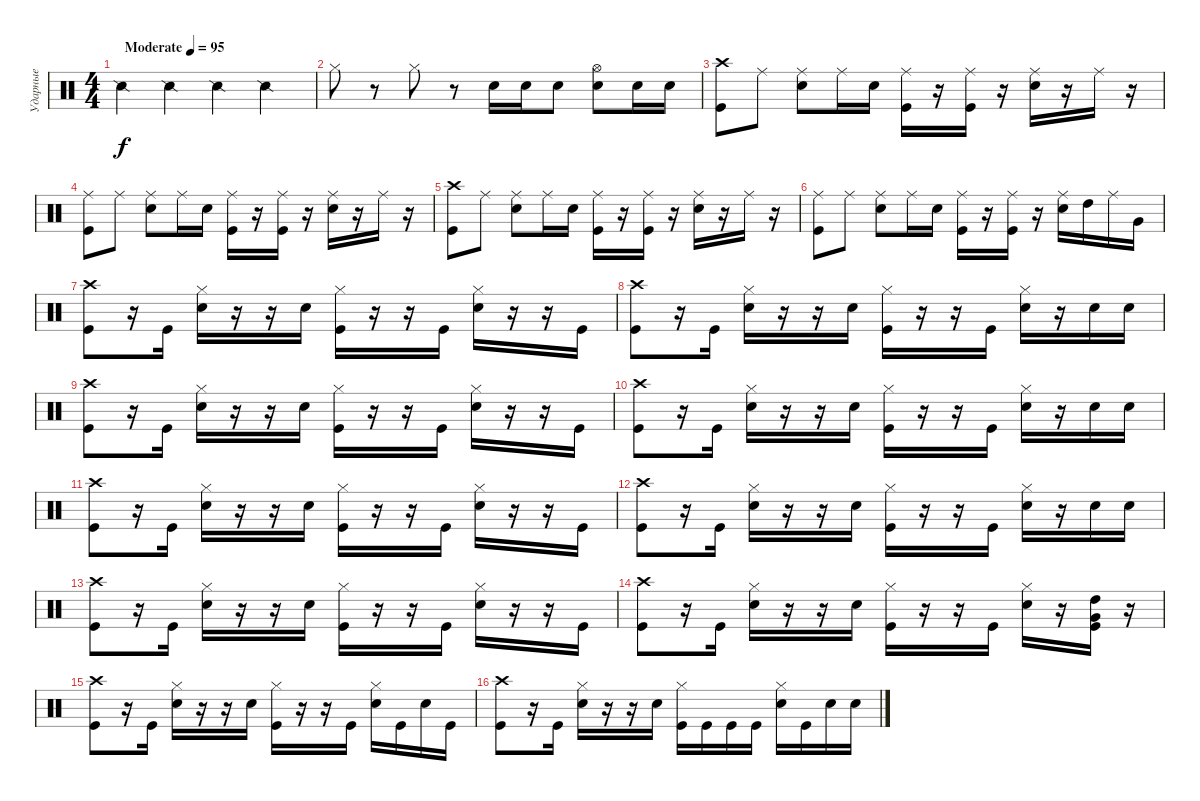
\track ("Ударные" "Ударные") {instrument percussion}
\staff {score}
\articulation defaults
\ts (4 4)
\tempo (95 "Moderate")
\clef neutral
\ks c "Snare (side stick) 2".4{dy f} "Snare (side stick) 2".4 "Snare (side stick) 2".4 "Snare (side stick) 2".4
|
"Hi-Hat (closed)".8 r.8 "Hi-Hat (closed)".8 r.8 "Snare (hit) 2".16 "Snare (hit) 2".16 "Snare (hit) 2".8 ("Snare (hit) 2" "Hi-Hat (open)").8 "Snare (hit) 2".16 "Snare (hit) 2".16 |
("Kick (hit)" "Crash high (hit)").8 "Ride (middle)".8 ("Ride (middle)" "Snare (hit) 2").8 "Ride (middle)".16 "Snare (hit) 2".16 ("Ride (middle)" "Kick (hit)").16 r.16 ("Kick (hit)" "Ride (middle)").16 r.16 ("Ride (middle)" "Snare (hit) 2").16 r.16 "Ride (middle)".16 r.16 |
("Kick (hit)" "Ride (middle)").8 "Ride (middle)".8 ("Ride (middle)" "Snare (hit) 2").8 "Ride (middle)".16 "Snare (hit) 2".16 ("Ride (middle)" "Kick (hit)").16 r.16 ("Kick (hit)" "Ride (middle)").16 r.16 ("Ride (middle)" "Snare (hit) 2").16 r.16 "Ride (middle)".16 r.16 |
("Kick (hit)" "Crash high (hit)").8 "Ride (middle)".8 ("Ride (middle)" "Snare (hit) 2").8 "Ride (middle)".16 "Snare (hit) 2".16 ("Ride (middle)" "Kick (hit)").16 r.16 ("Kick (hit)" "Ride (middle)").16 r.16 ("Ride (middle)" "Snare (hit) 2").16 r.16 "Ride (middle)".16 r.16 |
("Kick (hit)" "Ride (middle)").8 "Ride (middle)".8 ("Ride (middle)" "Snare (hit) 2").8 "Ride (middle)".16 "Snare (hit) 2".16 ("Ride (middle)" "Kick (hit)").16 r.16 ("Kick (hit)" "Ride (middle)").16 r.16 ("Ride (middle)" "Snare (hit) 2").16 "High Tom (hit)".16 "Ride (middle)".16 "Very Low Tom (hit)".16 |
("Kick (hit)" "Crash high (hit)").8 r.16 "Kick (hit)".16 ("Snare (hit) 2" "Hi-Hat (closed)").16 r.16 r.16 "Snare (hit) 2".16 ("Kick (hit)" "Hi-Hat (closed)").16 r.16 r.16 "Kick (hit)".16 ("Snare (hit) 2" "Hi-Hat (closed)").16 r.16 r.16 "Kick (hit)".16 |
("Kick (hit)" "Crash high (hit)").8 r.16 "Kick (hit)".16 ("Snare (hit) 2" "Hi-Hat (closed)").16 r.16 r.16 "Snare (hit) 2".16 ("Kick (hit)" "Hi-Hat (closed)").16 r.16 r.16 "Kick (hit)".16 ("Snare (hit) 2" "Hi-Hat (closed)").16 r.16 "Snare (hit) 2".16 "Snare (hit) 2".16 |
("Kick (hit)" "Crash high (hit)").8 r.16 "Kick (hit)".16 ("Snare (hit) 2" "Hi-Hat (closed)").16 r.16 r.16 "Snare (hit) 2".16 ("Kick (hit)" "Hi-Hat (closed)").16 r.16 r.16 "Kick (hit)".16 ("Snare (hit) 2" "Hi-Hat (closed)").16 r.16 r.16 "Kick (hit)".16 |
("Kick (hit)" "Crash high (hit)").8 r.16 "Kick (hit)".16 ("Snare (hit) 2" "Hi-Hat (closed)").16 r.16 r.16 "Snare (hit) 2".16 ("Kick (hit)" "Hi-Hat (closed)").16 r.16 r.16 "Kick (hit)".16 ("Snare (hit) 2" "Hi-Hat (closed)").16 r.16 "Snare (hit) 2".16 "Snare (hit) 2".16 |
("Kick (hit)" "Crash high (hit)").8 r.16 "Kick (hit)".16 ("Snare (hit) 2" "Hi-Hat (closed)").16 r.16 r.16 "Snare (hit) 2".16 ("Kick (hit)" "Hi-Hat (closed)").16 r.16 r.16 "Kick (hit)".16 ("Snare (hit) 2" "Hi-Hat (closed)").16 r.16 r.16 "Kick (hit)".16 |
("Kick (hit)" "Crash high (hit)").8 r.16 "Kick (hit)".16 ("Snare (hit) 2" "Hi-Hat (closed)").16 r.16 r.16 "Snare (hit) 2".16 ("Kick (hit)" "Hi-Hat (closed)").16 r.16 r.16 "Kick (hit)".16 ("Snare (hit) 2" "Hi-Hat (closed)").16 r.16 "Snare (hit) 2".16 "Snare (hit) 2".16 |
("Kick (hit)" "Crash high (hit)").8 r.16 "Kick (hit)".16 ("Snare (hit) 2" "Hi-Hat (closed)").16 r.16 r.16 "Snare (hit) 2".16 ("Kick (hit)" "Hi-Hat (closed)").16 r.16 r.16 "Kick (hit)".16 ("Snare (hit) 2" "Hi-Hat (closed)").16 r.16 r.16 "Kick (hit)".16 |
("Kick (hit)" "Crash high (hit)").8 r.16 "Kick (hit)".16 ("Snare (hit) 2" "Hi-Hat (closed)").16 r.16 r.16 "Snare (hit) 2".16 ("Kick (hit)" "Hi-Hat (closed)").16 r.16 r.16 "Kick (hit)".16 ("Snare (hit) 2" "Hi-Hat (closed)").16 r.16 ("Very Low Tom (hit)" "High Tom (hit)" "Kick (hit)").16 r.16 |
("Kick (hit)" "Crash high (hit)").8 r.16 "Kick (hit)".16 ("Snare (hit) 2" "Hi-Hat (closed)").16 r.16 r.16 "Snare (hit) 2".16 ("Kick (hit)" "Hi-Hat (closed)").16 r.16 r.16 "Kick (hit)".16 ("Snare (hit) 2" "Hi-Hat (closed)").16 "Kick (hit)".16 "Snare (hit) 2".16 "Kick (hit)".16 |
("Kick (hit)" "Crash high (hit)").8 r.16 "Kick (hit)".16 ("Snare (hit) 2" "Hi-Hat (closed)").16 r.16 r.16 "Snare (hit) 2".16 ("Kick (hit)" "Hi-Hat (closed)").16 "Kick (hit)".16 "Kick (hit)".16 "Kick (hit)".16 ("Snare (hit) 2" "Hi-Hat (closed)").16 "Kick (hit)".16 "Snare (hit) 2".16 "Snare (hit) 2".16
